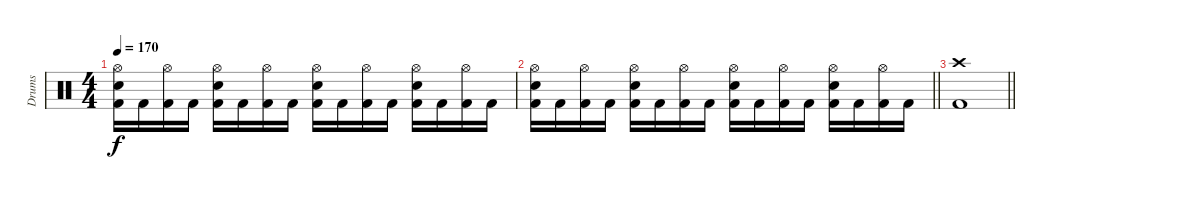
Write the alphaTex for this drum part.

\track ("Drums" "Drums") {instrument percussion}
\staff {score}
\articulation defaults
\ts (4 4)
\tempo 170
\clef neutral
\ks c
("Hi-Hat (open)" "Snare (hit) 2" "Kick (hit) 2").16{dy f} "Kick (hit) 2".16 ("Hi-Hat (open)" "Kick (hit) 2").16 "Kick (hit) 2".16 ("Hi-Hat (open)" "Snare (hit) 2" "Kick (hit) 2").16 "Kick (hit) 2".16 ("Hi-Hat (open)" "Kick (hit) 2").16 "Kick (hit) 2".16 ("Hi-Hat (open)" "Snare (hit) 2" "Kick (hit) 2").16 "Kick (hit) 2".16 ("Hi-Hat (open)" "Kick (hit) 2").16 "Kick (hit) 2".16 ("Hi-Hat (open)" "Snare (hit) 2" "Kick (hit) 2").16 "Kick (hit) 2".16 ("Hi-Hat (open)" "Kick (hit) 2").16 "Kick (hit) 2".16 |
\barLineRight lightlight
("Hi-Hat (open)" "Snare (hit) 2" "Kick (hit) 2").16 "Kick (hit) 2".16 ("Hi-Hat (open)" "Kick (hit) 2").16 "Kick (hit) 2".16 ("Hi-Hat (open)" "Snare (hit) 2" "Kick (hit) 2").16 "Kick (hit) 2".16 ("Hi-Hat (open)" "Kick (hit) 2").16 "Kick (hit) 2".16 ("Hi-Hat (open)" "Snare (hit) 2" "Kick (hit) 2").16 "Kick (hit) 2".16 ("Hi-Hat (open)" "Kick (hit) 2").16 "Kick (hit) 2".16 ("Hi-Hat (open)" "Snare (hit) 2" "Kick (hit) 2").16 "Kick (hit) 2".16 ("Hi-Hat (open)" "Kick (hit) 2").16 "Kick (hit) 2".16 |
\barLineRight lightlight
("Crash high (hit)" "Kick (hit) 2").1
